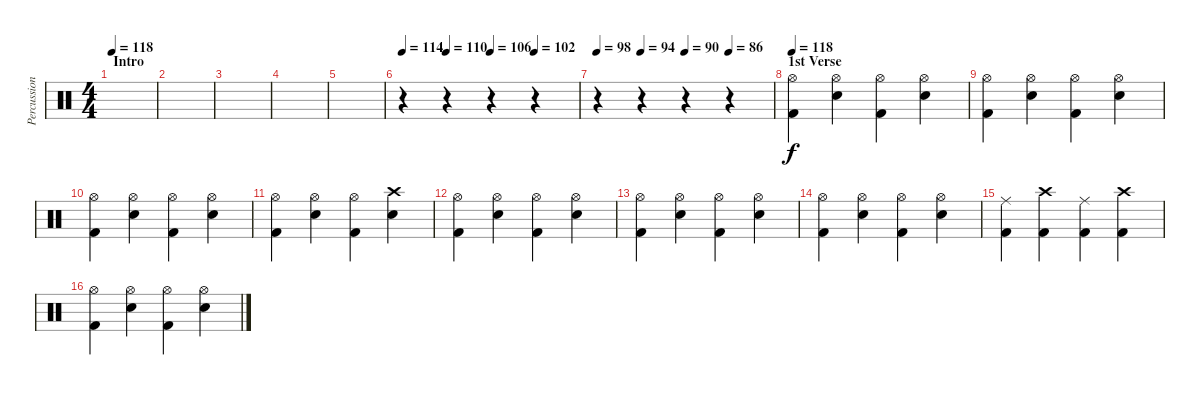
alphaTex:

\track ("Percussion" "Percussion") {instrument percussion}
\staff {score}
\articulation defaults
\ts (4 4)
\section ("" "Intro")
\tempo 118
\clef neutral
\ks c
|
|
|
|
|
\tempo 114
\tempo (110 0.25)
\tempo (106 0.5)
\tempo (102 0.75)
r.4 r.4 r.4 r.4 |
\tempo 98
\tempo (94 0.25)
\tempo (90 0.5)
\tempo (86 0.75)
r.4 r.4 r.4 r.4 |
\section ("" "1st Verse")
\tempo 118
("Hi-Hat (open)" "Kick (hit) 2").4 ("Hi-Hat (open)" "Snare (hit) 2").4 ("Hi-Hat (open)" "Kick (hit) 2").4 ("Hi-Hat (open)" "Snare (hit) 2").4 |
("Hi-Hat (open)" "Kick (hit) 2").4 ("Hi-Hat (open)" "Snare (hit) 2").4 ("Hi-Hat (open)" "Kick (hit) 2").4 ("Hi-Hat (open)" "Snare (hit) 2").4 |
("Hi-Hat (open)" "Kick (hit) 2").4 ("Hi-Hat (open)" "Snare (hit) 2").4 ("Hi-Hat (open)" "Kick (hit) 2").4 ("Hi-Hat (open)" "Snare (hit) 2").4 |
("Hi-Hat (open)" "Kick (hit) 2").4 ("Hi-Hat (open)" "Snare (hit) 2").4 ("Hi-Hat (open)" "Kick (hit) 2").4 ("Crash high (hit)" "Snare (hit) 2").4 |
("Hi-Hat (open)" "Kick (hit) 2").4 ("Hi-Hat (open)" "Snare (hit) 2").4 ("Hi-Hat (open)" "Kick (hit) 2").4 ("Hi-Hat (open)" "Snare (hit) 2").4 |
("Hi-Hat (open)" "Kick (hit) 2").4 ("Hi-Hat (open)" "Snare (hit) 2").4 ("Hi-Hat (open)" "Kick (hit) 2").4 ("Hi-Hat (open)" "Snare (hit) 2").4 |
("Hi-Hat (open)" "Kick (hit) 2").4 ("Hi-Hat (open)" "Snare (hit) 2").4 ("Hi-Hat (open)" "Kick (hit) 2").4 ("Hi-Hat (open)" "Snare (hit) 2").4 |
("Ride (middle)" "Kick (hit) 2").4 ("Crash high (hit)" "Kick (hit) 2").4 ("Ride (middle)" "Kick (hit) 2").4 ("Crash high (hit)" "Kick (hit) 2").4 |
("Hi-Hat (open)" "Kick (hit) 2").4 ("Hi-Hat (open)" "Snare (hit) 2").4 ("Hi-Hat (open)" "Kick (hit) 2").4 ("Hi-Hat (open)" "Snare (hit) 2").4
